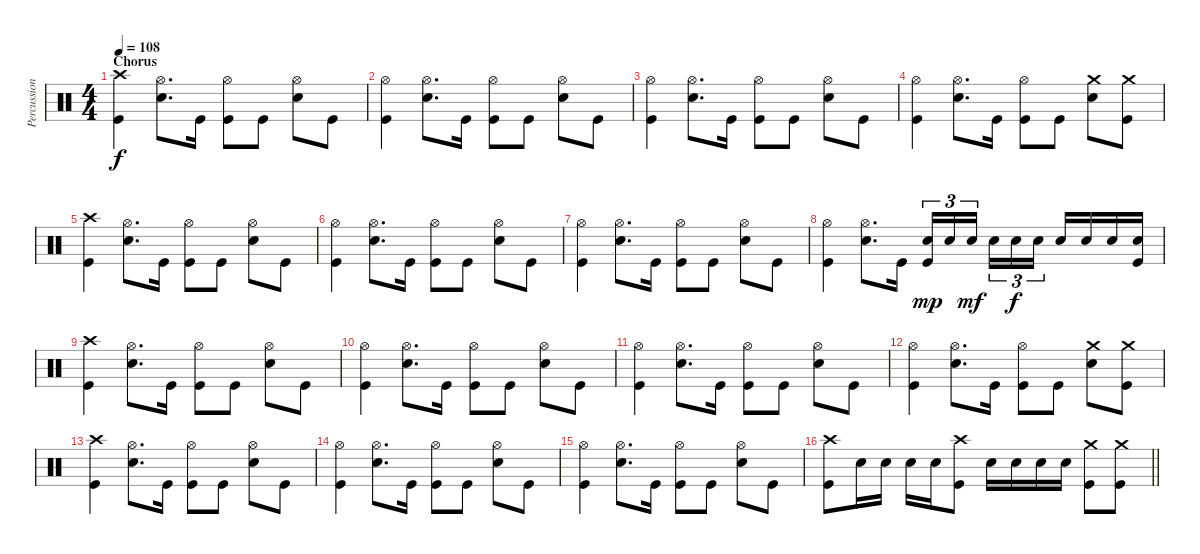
\track ("Percussions" "Percussion") {instrument percussion}
\staff {score}
\articulation defaults
\ts (4 4)
\section ("" "Chorus")
\tempo 108
\clef neutral
\ks c
("Crash high (hit)" "Kick (hit)").4{dy f} ("Hi-Hat (open)" "Electric Snare (hit)").8{d} "Kick (hit)".16 ("Hi-Hat (open)" "Kick (hit)").8 "Kick (hit)".8 ("Hi-Hat (open)" "Electric Snare (hit)").8 "Kick (hit)".8 |
("Hi-Hat (open)" "Kick (hit)").4 ("Hi-Hat (open)" "Electric Snare (hit)").8{d} "Kick (hit)".16 ("Hi-Hat (open)" "Kick (hit)").8 "Kick (hit)".8 ("Hi-Hat (open)" "Electric Snare (hit)").8 "Kick (hit)".8 |
("Hi-Hat (open)" "Kick (hit)").4 ("Hi-Hat (open)" "Electric Snare (hit)").8{d} "Kick (hit)".16 ("Hi-Hat (open)" "Kick (hit)").8 "Kick (hit)".8 ("Hi-Hat (open)" "Electric Snare (hit)").8 "Kick (hit)".8 |
("Hi-Hat (open)" "Kick (hit)").4 ("Hi-Hat (open)" "Electric Snare (hit)").8{d} "Kick (hit)".16 ("Hi-Hat (open)" "Kick (hit)").8 "Kick (hit)".8 ("Crash medium (hit)" "Electric Snare (hit)").8 ("Crash medium (hit)" "Kick (hit)").8 |
("Crash high (hit)" "Kick (hit)").4 ("Hi-Hat (open)" "Electric Snare (hit)").8{d} "Kick (hit)".16 ("Hi-Hat (open)" "Kick (hit)").8 "Kick (hit)".8 ("Hi-Hat (open)" "Electric Snare (hit)").8 "Kick (hit)".8 |
("Hi-Hat (open)" "Kick (hit)").4 ("Hi-Hat (open)" "Electric Snare (hit)").8{d} "Kick (hit)".16 ("Hi-Hat (open)" "Kick (hit)").8 "Kick (hit)".8 ("Hi-Hat (open)" "Electric Snare (hit)").8 "Kick (hit)".8 |
("Hi-Hat (open)" "Kick (hit)").4 ("Hi-Hat (open)" "Electric Snare (hit)").8{d} "Kick (hit)".16 ("Hi-Hat (open)" "Kick (hit)").8 "Kick (hit)".8 ("Hi-Hat (open)" "Electric Snare (hit)").8 "Kick (hit)".8 |
("Hi-Hat (open)" "Kick (hit)").4 ("Hi-Hat (open)" "Electric Snare (hit)").8{d} "Kick (hit)".16 ("Electric Snare (hit)" "Kick (hit)").16{tu (3 2) dy mp} "Electric Snare (hit)".16{tu (3 2)} "Electric Snare (hit)".16{tu (3 2) dy mf beam splitsecondary} "Electric Snare (hit)".16{tu (3 2)} "Electric Snare (hit)".16{tu (3 2) dy f} "Electric Snare (hit)".16{tu (3 2)} "Electric Snare (hit)".16 "Electric Snare (hit)".16 "Electric Snare (hit)".16 ("Electric Snare (hit)" "Kick (hit)").16 |
("Crash high (hit)" "Kick (hit)").4 ("Hi-Hat (open)" "Electric Snare (hit)").8{d} "Kick (hit)".16 ("Hi-Hat (open)" "Kick (hit)").8 "Kick (hit)".8 ("Hi-Hat (open)" "Electric Snare (hit)").8 "Kick (hit)".8 |
("Hi-Hat (open)" "Kick (hit)").4 ("Hi-Hat (open)" "Electric Snare (hit)").8{d} "Kick (hit)".16 ("Hi-Hat (open)" "Kick (hit)").8 "Kick (hit)".8 ("Hi-Hat (open)" "Electric Snare (hit)").8 "Kick (hit)".8 |
("Hi-Hat (open)" "Kick (hit)").4 ("Hi-Hat (open)" "Electric Snare (hit)").8{d} "Kick (hit)".16 ("Hi-Hat (open)" "Kick (hit)").8 "Kick (hit)".8 ("Hi-Hat (open)" "Electric Snare (hit)").8 "Kick (hit)".8 |
("Hi-Hat (open)" "Kick (hit)").4 ("Hi-Hat (open)" "Electric Snare (hit)").8{d} "Kick (hit)".16 ("Hi-Hat (open)" "Kick (hit)").8 "Kick (hit)".8 ("Crash medium (hit)" "Electric Snare (hit)").8 ("Crash medium (hit)" "Kick (hit)").8 |
("Crash high (hit)" "Kick (hit)").4 ("Hi-Hat (open)" "Electric Snare (hit)").8{d} "Kick (hit)".16 ("Hi-Hat (open)" "Kick (hit)").8 "Kick (hit)".8 ("Hi-Hat (open)" "Electric Snare (hit)").8 "Kick (hit)".8 |
("Hi-Hat (open)" "Kick (hit)").4 ("Hi-Hat (open)" "Electric Snare (hit)").8{d} "Kick (hit)".16 ("Hi-Hat (open)" "Kick (hit)").8 "Kick (hit)".8 ("Hi-Hat (open)" "Electric Snare (hit)").8 "Kick (hit)".8 |
("Hi-Hat (open)" "Kick (hit)").4 ("Hi-Hat (open)" "Electric Snare (hit)").8{d} "Kick (hit)".16 ("Hi-Hat (open)" "Kick (hit)").8 "Kick (hit)".8 ("Hi-Hat (open)" "Electric Snare (hit)").8 "Kick (hit)".8 |
\barLineRight lightlight
("Crash high (hit)" "Kick (hit)").8 "Electric Snare (hit)".16 "Electric Snare (hit)".16 "Electric Snare (hit)".16 "Electric Snare (hit)".16 ("Crash high (hit)" "Kick (hit)").8 "Electric Snare (hit)".16 "Electric Snare (hit)".16 "Electric Snare (hit)".16 "Electric Snare (hit)".16 ("Crash medium (hit)" "Kick (hit)").8 ("Crash medium (hit)" "Kick (hit)").8
